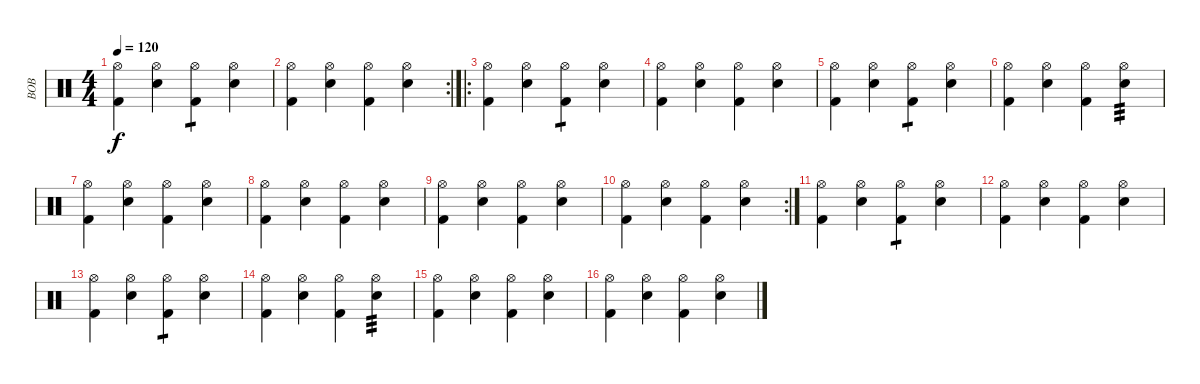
\track ("BOB" "BOB") {instrument percussion}
\staff {score}
\articulation defaults
\ts (4 4)
\tempo 120
\clef neutral
\ks c
("Hi-Hat (open)" "Kick (hit) 2").4{dy f} ("Hi-Hat (open)" "Electric Snare (hit)").4 ("Hi-Hat (open)" "Kick (hit) 2").4{tp 1} ("Hi-Hat (open)" "Electric Snare (hit)").4 |
\rc 2
("Hi-Hat (open)" "Kick (hit) 2").4 ("Hi-Hat (open)" "Electric Snare (hit)").4 ("Hi-Hat (open)" "Kick (hit) 2").4 ("Hi-Hat (open)" "Electric Snare (hit)").4 |
\ro
("Hi-Hat (open)" "Kick (hit) 2").4 ("Hi-Hat (open)" "Electric Snare (hit)").4 ("Hi-Hat (open)" "Kick (hit) 2").4{tp 1} ("Hi-Hat (open)" "Electric Snare (hit)").4 |
("Hi-Hat (open)" "Kick (hit) 2").4 ("Hi-Hat (open)" "Electric Snare (hit)").4 ("Hi-Hat (open)" "Kick (hit) 2").4 ("Hi-Hat (open)" "Electric Snare (hit)").4 |
("Hi-Hat (open)" "Kick (hit) 2").4 ("Hi-Hat (open)" "Electric Snare (hit)").4 ("Hi-Hat (open)" "Kick (hit) 2").4{tp 1} ("Hi-Hat (open)" "Electric Snare (hit)").4 |
("Hi-Hat (open)" "Kick (hit) 2").4 ("Hi-Hat (open)" "Electric Snare (hit)").4 ("Hi-Hat (open)" "Kick (hit) 2").4 ("Hi-Hat (open)" "Electric Snare (hit)").4{tp 3} |
("Hi-Hat (open)" "Kick (hit) 2").4 ("Hi-Hat (open)" "Electric Snare (hit)").4 ("Hi-Hat (open)" "Kick (hit) 2").4 ("Hi-Hat (open)" "Electric Snare (hit)").4 |
("Hi-Hat (open)" "Kick (hit) 2").4 ("Hi-Hat (open)" "Electric Snare (hit)").4 ("Hi-Hat (open)" "Kick (hit) 2").4 ("Hi-Hat (open)" "Electric Snare (hit)").4 |
("Hi-Hat (open)" "Kick (hit) 2").4 ("Hi-Hat (open)" "Electric Snare (hit)").4 ("Hi-Hat (open)" "Kick (hit) 2").4 ("Hi-Hat (open)" "Electric Snare (hit)").4 |
\rc 2
("Hi-Hat (open)" "Kick (hit) 2").4 ("Hi-Hat (open)" "Electric Snare (hit)").4 ("Hi-Hat (open)" "Kick (hit) 2").4 ("Hi-Hat (open)" "Electric Snare (hit)").4 |
("Hi-Hat (open)" "Kick (hit) 2").4{volume 0} ("Hi-Hat (open)" "Electric Snare (hit)").4 ("Hi-Hat (open)" "Kick (hit) 2").4{tp 1} ("Hi-Hat (open)" "Electric Snare (hit)").4 |
("Hi-Hat (open)" "Kick (hit) 2").4 ("Hi-Hat (open)" "Electric Snare (hit)").4 ("Hi-Hat (open)" "Kick (hit) 2").4 ("Hi-Hat (open)" "Electric Snare (hit)").4 |
("Hi-Hat (open)" "Kick (hit) 2").4 ("Hi-Hat (open)" "Electric Snare (hit)").4 ("Hi-Hat (open)" "Kick (hit) 2").4{tp 1} ("Hi-Hat (open)" "Electric Snare (hit)").4 |
("Hi-Hat (open)" "Kick (hit) 2").4 ("Hi-Hat (open)" "Electric Snare (hit)").4 ("Hi-Hat (open)" "Kick (hit) 2").4 ("Hi-Hat (open)" "Electric Snare (hit)").4{tp 3} |
("Hi-Hat (open)" "Kick (hit) 2").4 ("Hi-Hat (open)" "Electric Snare (hit)").4 ("Hi-Hat (open)" "Kick (hit) 2").4 ("Hi-Hat (open)" "Electric Snare (hit)").4 |
("Hi-Hat (open)" "Kick (hit) 2").4 ("Hi-Hat (open)" "Electric Snare (hit)").4 ("Hi-Hat (open)" "Kick (hit) 2").4 ("Hi-Hat (open)" "Electric Snare (hit)").4
